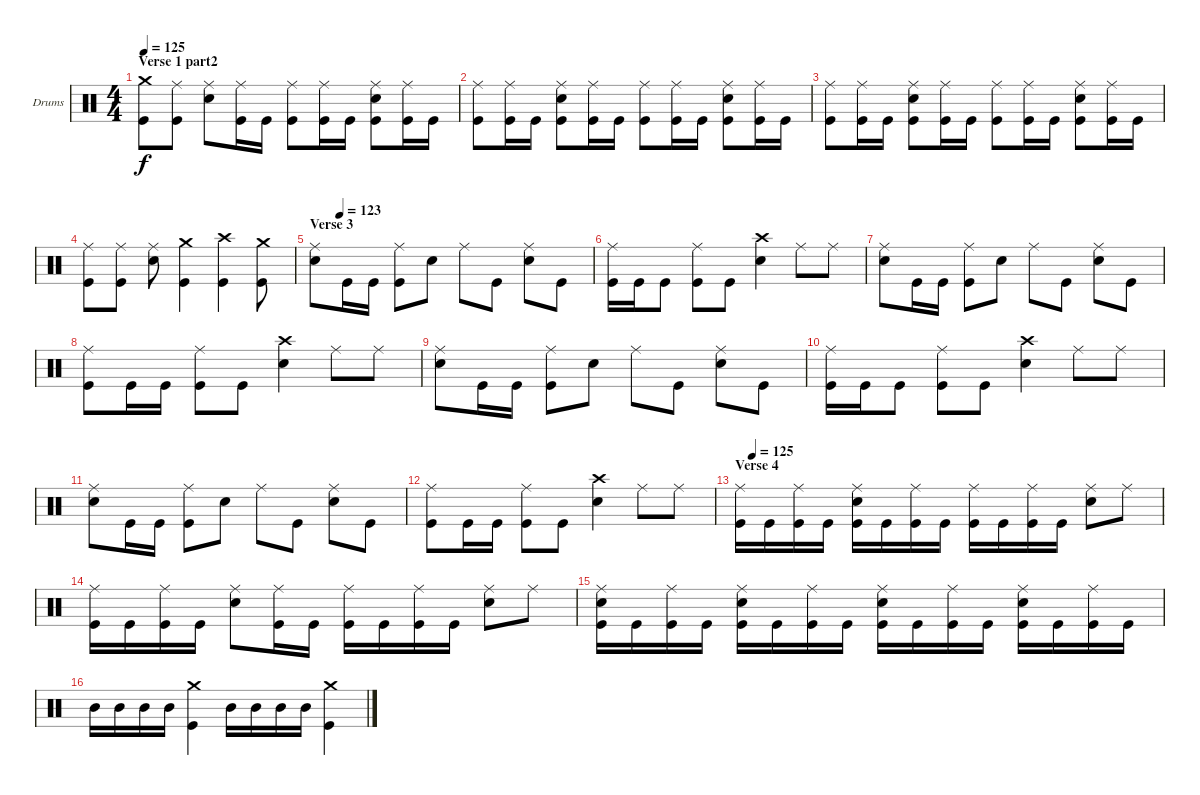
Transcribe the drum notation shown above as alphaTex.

\bracketExtendMode groupsimilarinstruments
\firstSystemTrackNameOrientation horizontal
\otherSystemsTrackNameOrientation horizontal
\track ("Drumkit" "Drums") {instrument percussion}
\staff {score}
\articulation defaults
\ts (4 4)
\section ("" "Verse 1 part2")
\tempo 125
\clef neutral
\ks c
("Crash medium (hit)" "Kick (hit)").8{dy f} ("Ride (middle)" "Kick (hit)").8 ("Ride (middle)" "Snare (hit) 2").8 ("Ride (middle)" "Kick (hit)").16 "Kick (hit)".16 ("Ride (middle)" "Kick (hit)").8 ("Ride (middle)" "Kick (hit)").16 "Kick (hit)".16 ("Ride (middle)" "Snare (hit) 2" "Kick (hit)").8 ("Ride (middle)" "Kick (hit)").16 "Kick (hit)".16 |
("Ride (middle)" "Kick (hit)").8 ("Ride (middle)" "Kick (hit)").16 "Kick (hit)".16 ("Ride (middle)" "Snare (hit) 2" "Kick (hit)").8 ("Ride (middle)" "Kick (hit)").16 "Kick (hit)".16 ("Ride (middle)" "Kick (hit)").8 ("Ride (middle)" "Kick (hit)").16 "Kick (hit)".16 ("Ride (middle)" "Snare (hit) 2" "Kick (hit)").8 ("Ride (middle)" "Kick (hit)").16 "Kick (hit)".16 |
("Ride (middle)" "Kick (hit)").8 ("Ride (middle)" "Kick (hit)").16 "Kick (hit)".16 ("Ride (middle)" "Snare (hit) 2" "Kick (hit)").8 ("Ride (middle)" "Kick (hit)").16 "Kick (hit)".16 ("Ride (middle)" "Kick (hit)").8 ("Ride (middle)" "Kick (hit)").16 "Kick (hit)".16 ("Ride (middle)" "Snare (hit) 2" "Kick (hit)").8 ("Ride (middle)" "Kick (hit)").16 "Kick (hit)".16 |
("Ride (middle)" "Kick (hit)").8 ("Ride (middle)" "Kick (hit)").8 ("Ride (middle)" "Snare (hit) 2").8 ("Crash medium (hit)" "Kick (hit)").4 ("Crash high (hit)" "Kick (hit)").4 ("Crash medium (hit)" "Kick (hit)").8 |
\section ("" "Verse 3")
\tempo (123 0.09375)
("Ride (middle)" "Snare (hit) 2").8 "Kick (hit)".16 "Kick (hit)".16 ("Ride (middle)" "Kick (hit)").8 "Snare (hit) 2".8 "Ride (middle)".8 "Kick (hit)".8 ("Ride (middle)" "Snare (hit) 2").8 "Kick (hit)".8 |
("Ride (middle)" "Kick (hit)").16 "Kick (hit)".16 "Kick (hit)".8 ("Ride (middle)" "Kick (hit)").8 "Kick (hit)".8 ("Crash high (hit)" "Snare (hit) 2").4 "Ride (middle)".8 "Ride (middle)".8 |
("Ride (middle)" "Snare (hit) 2").8 "Kick (hit)".16 "Kick (hit)".16 ("Ride (middle)" "Kick (hit)").8 "Snare (hit) 2".8 "Ride (middle)".8 "Kick (hit)".8 ("Ride (middle)" "Snare (hit) 2").8 "Kick (hit)".8 |
("Ride (middle)" "Kick (hit)").8 "Kick (hit)".16 "Kick (hit)".16 ("Ride (middle)" "Kick (hit)").8 "Kick (hit)".8 ("Crash high (hit)" "Snare (hit) 2").4 "Ride (middle)".8 "Ride (middle)".8 |
("Ride (middle)" "Snare (hit) 2").8 "Kick (hit)".16 "Kick (hit)".16 ("Ride (middle)" "Kick (hit)").8 "Snare (hit) 2".8 "Ride (middle)".8 "Kick (hit)".8 ("Ride (middle)" "Snare (hit) 2").8 "Kick (hit)".8 |
("Ride (middle)" "Kick (hit)").16 "Kick (hit)".16 "Kick (hit)".8 ("Ride (middle)" "Kick (hit)").8 "Kick (hit)".8 ("Crash high (hit)" "Snare (hit) 2").4 "Ride (middle)".8 "Ride (middle)".8 |
("Ride (middle)" "Snare (hit) 2").8 "Kick (hit)".16 "Kick (hit)".16 ("Ride (middle)" "Kick (hit)").8 "Snare (hit) 2".8 "Ride (middle)".8 "Kick (hit)".8 ("Ride (middle)" "Snare (hit) 2").8 "Kick (hit)".8 |
("Ride (middle)" "Kick (hit)").8 "Kick (hit)".16 "Kick (hit)".16 ("Ride (middle)" "Kick (hit)").8 "Kick (hit)".8 ("Crash high (hit)" "Snare (hit) 2").4 "Ride (middle)".8 "Ride (middle)".8 |
\section ("" "Verse 4")
\tempo (125 0.03125)
("Ride (middle)" "Kick (hit)").16 "Kick (hit)".16 ("Ride (middle)" "Kick (hit)").16 "Kick (hit)".16 ("Ride (middle)" "Snare (hit) 2" "Kick (hit)").16 "Kick (hit)".16 ("Ride (middle)" "Kick (hit)").16 "Kick (hit)".16 ("Ride (middle)" "Kick (hit)").16 "Kick (hit)".16 ("Ride (middle)" "Kick (hit)").16 "Kick (hit)".16 ("Ride (middle)" "Snare (hit) 2").8 "Ride (middle)".8 |
("Ride (middle)" "Kick (hit)").16 "Kick (hit)".16 ("Ride (middle)" "Kick (hit)").16 "Kick (hit)".16 ("Ride (middle)" "Snare (hit) 2").8 ("Ride (middle)" "Kick (hit)").16 "Kick (hit)".16 ("Ride (middle)" "Kick (hit)").16 "Kick (hit)".16 ("Ride (middle)" "Kick (hit)").16 "Kick (hit)".16 ("Ride (middle)" "Snare (hit) 2").8 "Ride (middle)".8 |
("Ride (middle)" "Snare (hit) 2" "Kick (hit)").16 "Kick (hit)".16 ("Ride (middle)" "Kick (hit)").16 "Kick (hit)".16 ("Ride (middle)" "Snare (hit) 2" "Kick (hit)").16 "Kick (hit)".16 ("Ride (middle)" "Kick (hit)").16 "Kick (hit)".16 ("Ride (middle)" "Snare (hit) 2" "Kick (hit)").16 "Kick (hit)".16 ("Ride (middle)" "Kick (hit)").16 "Kick (hit)".16 ("Ride (middle)" "Snare (hit) 2" "Kick (hit)").16 "Kick (hit)".16 ("Ride (middle)" "Kick (hit)").16 "Kick (hit)".16 |
"Mid Tom (hit)".16 "Mid Tom (hit)".16 "Mid Tom (hit)".16 "Mid Tom (hit)".16 ("Crash medium (hit)" "Kick (hit)").4 "Mid Tom (hit)".16 "Mid Tom (hit)".16 "Mid Tom (hit)".16 "Mid Tom (hit)".16 ("Crash medium (hit)" "Kick (hit)").4
